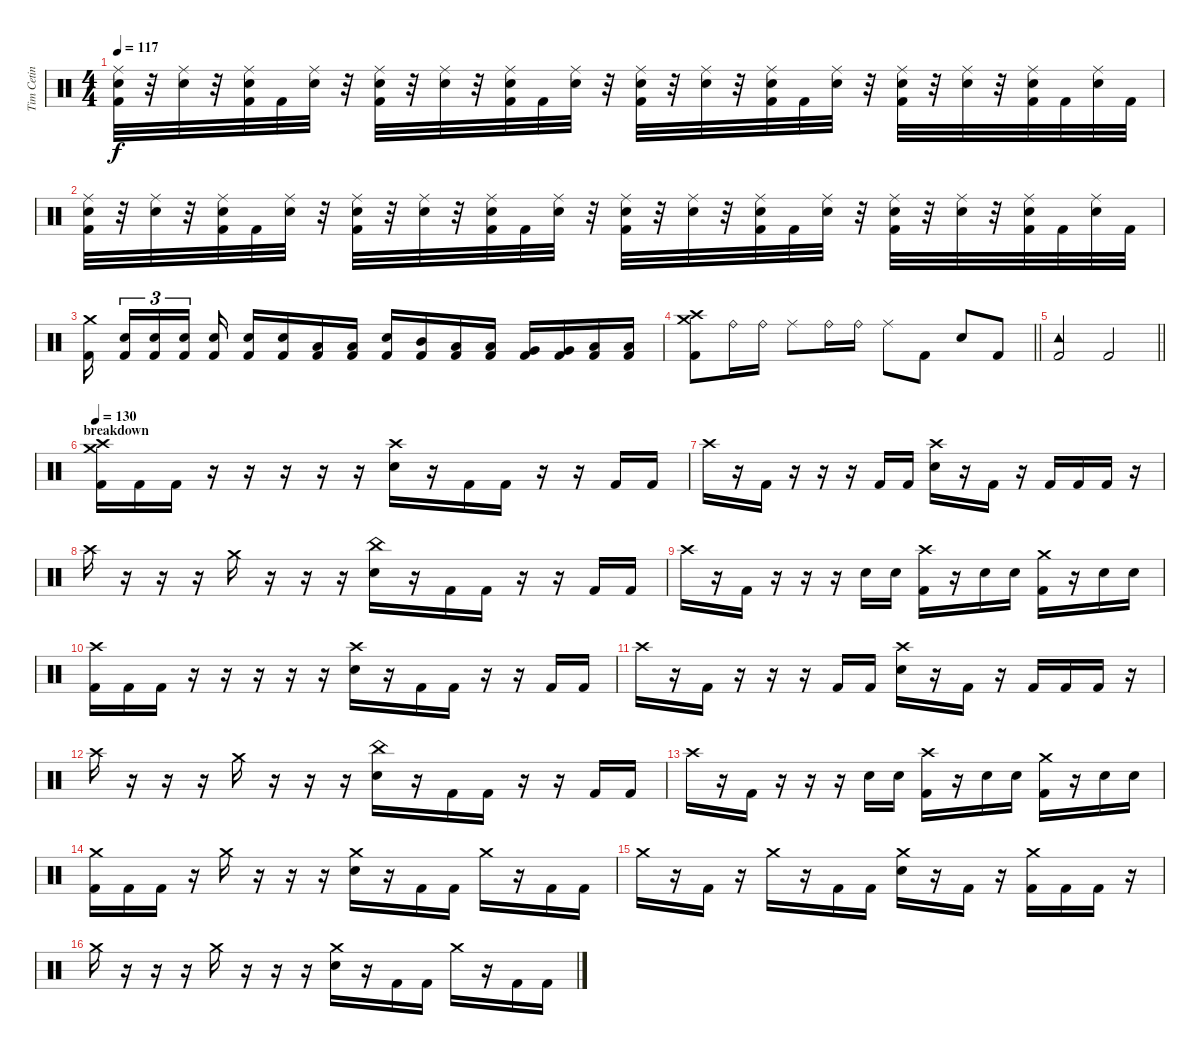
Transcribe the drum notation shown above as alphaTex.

\track ("Tim Cetin" "Tim Cetin") {instrument percussion}
\staff {score}
\articulation defaults
\ts (4 4)
\tempo 117
\clef neutral
\ks c
("Ride (middle)" "Snare (hit) 2" "Kick (hit) 2").32{dy f} r.32 ("Ride (middle)" "Snare (hit) 2").32 r.32 ("Ride (middle)" "Snare (hit) 2" "Kick (hit) 2").32 "Kick (hit) 2".32 ("Ride (middle)" "Snare (hit) 2").32 r.32 ("Ride (middle)" "Snare (hit) 2" "Kick (hit) 2").32 r.32 ("Ride (middle)" "Snare (hit) 2").32 r.32 ("Ride (middle)" "Snare (hit) 2" "Kick (hit) 2").32 "Kick (hit) 2".32 ("Ride (middle)" "Snare (hit) 2").32 r.32 ("Ride (middle)" "Snare (hit) 2" "Kick (hit) 2").32 r.32 ("Ride (middle)" "Snare (hit) 2").32 r.32 ("Ride (middle)" "Snare (hit) 2" "Kick (hit) 2").32 "Kick (hit) 2".32 ("Ride (middle)" "Snare (hit) 2").32 r.32 ("Ride (middle)" "Snare (hit) 2" "Kick (hit) 2").32 r.32 ("Ride (middle)" "Snare (hit) 2").32 r.32 ("Ride (middle)" "Snare (hit) 2" "Kick (hit) 2").32 "Kick (hit) 2".32 ("Ride (middle)" "Snare (hit) 2").32 "Kick (hit) 2".32 |
("Ride (middle)" "Snare (hit) 2" "Kick (hit) 2").32 r.32 ("Ride (middle)" "Snare (hit) 2").32 r.32 ("Ride (middle)" "Snare (hit) 2" "Kick (hit) 2").32 "Kick (hit) 2".32 ("Ride (middle)" "Snare (hit) 2").32 r.32 ("Ride (middle)" "Snare (hit) 2" "Kick (hit) 2").32 r.32 ("Ride (middle)" "Snare (hit) 2").32 r.32 ("Ride (middle)" "Snare (hit) 2" "Kick (hit) 2").32 "Kick (hit) 2".32 ("Ride (middle)" "Snare (hit) 2").32 r.32 ("Ride (middle)" "Snare (hit) 2" "Kick (hit) 2").32 r.32 ("Ride (middle)" "Snare (hit) 2").32 r.32 ("Ride (middle)" "Snare (hit) 2" "Kick (hit) 2").32 "Kick (hit) 2".32 ("Ride (middle)" "Snare (hit) 2").32 r.32 ("Ride (middle)" "Snare (hit) 2" "Kick (hit) 2").32 r.32 ("Ride (middle)" "Snare (hit) 2").32 r.32 ("Ride (middle)" "Snare (hit) 2" "Kick (hit) 2").32 "Kick (hit) 2".32 ("Ride (middle)" "Snare (hit) 2").32 "Kick (hit) 2".32 |
("Crash medium (hit)" "Kick (hit) 2").16{beam splitsecondary} ("Snare (hit) 2" "Kick (hit) 2").16{tu (3 2)} ("Snare (hit) 2" "Kick (hit) 2").16{tu (3 2)} ("Snare (hit) 2" "Kick (hit) 2").16{tu (3 2) beam splitsecondary} ("Snare (hit) 2" "Kick (hit) 2").16 ("Snare (hit) 2" "Kick (hit) 2").16 ("Snare (hit) 2" "Kick (hit) 2").16 ("Low Tom (hit)" "Kick (hit) 2").16 ("Low Tom (hit)" "Kick (hit) 2").16 ("Snare (hit) 2" "Kick (hit) 2").16 ("Mid Tom (hit)" "Kick (hit) 2").16 ("Low Tom (hit)" "Kick (hit) 2").16 ("Low Tom (hit)" "Kick (hit) 2").16 ("Very Low Tom (hit)" "Kick (hit) 2").16 ("Very Low Tom (hit)" "Kick (hit) 2").16 ("Low Floor Tom (hit)" "Kick (hit) 2").16 ("Low Floor Tom (hit)" "Kick (hit) 2").16 |
\barLineRight lightlight
("Crash medium (hit)" "Crash high (hit)" "Kick (hit) 2").8 "Ride (bell)".16 "Ride (bell)".16 "Ride (middle)".8 "Ride (bell)".16 "Ride (bell)".16 "Ride (middle)".8 "Kick (hit) 2".8 "Snare (hit) 2".8 "Kick (hit) 2".8 |
\barLineRight lightlight
("Tambourine (hit)" "Kick (hit) 2").2 "Kick (hit) 2".2 |
\section ("" "breakdown")
\tempo 130
("Crash medium (hit)" "Crash high (hit)" "Kick (hit) 2").16 "Kick (hit) 2".16 "Kick (hit) 2".16 r.16 r.16 r.16 r.16 r.16 ("Crash high (hit)" "Snare (hit) 2").16 r.16 "Kick (hit) 2".16 "Kick (hit) 2".16 r.16 r.16 "Kick (hit) 2".16 "Kick (hit) 2".16 |
"Crash high (hit)".16 r.16 "Kick (hit) 2".16 r.16 r.16 r.16 "Kick (hit) 2".16 "Kick (hit) 2".16 ("Crash high (hit)" "Snare (hit) 2").16 r.16 "Kick (hit) 2".16 r.16 "Kick (hit) 2".16 "Kick (hit) 2".16 "Kick (hit) 2".16 r.16 |
"Crash high (hit)".16 r.16 r.16 r.16 "Crash medium (hit)".16 r.16 r.16 r.16 ("China (hit)" "Snare (hit) 2").16 r.16 "Kick (hit) 2".16 "Kick (hit) 2".16 r.16 r.16 "Kick (hit) 2".16 "Kick (hit) 2".16 |
"Crash high (hit)".16 r.16 "Kick (hit) 2".16 r.16 r.16 r.16 "Snare (hit) 2".16 "Snare (hit) 2".16 ("Crash high (hit)" "Kick (hit) 2").16 r.16 "Snare (hit) 2".16 "Snare (hit) 2".16 ("Crash medium (hit)" "Kick (hit) 2").16 r.16 "Snare (hit) 2".16 "Snare (hit) 2".16 |
("Crash high (hit)" "Kick (hit) 2").16 "Kick (hit) 2".16 "Kick (hit) 2".16 r.16 r.16 r.16 r.16 r.16 ("Crash high (hit)" "Snare (hit) 2").16 r.16 "Kick (hit) 2".16 "Kick (hit) 2".16 r.16 r.16 "Kick (hit) 2".16 "Kick (hit) 2".16 |
"Crash high (hit)".16 r.16 "Kick (hit) 2".16 r.16 r.16 r.16 "Kick (hit) 2".16 "Kick (hit) 2".16 ("Crash high (hit)" "Snare (hit) 2").16 r.16 "Kick (hit) 2".16 r.16 "Kick (hit) 2".16 "Kick (hit) 2".16 "Kick (hit) 2".16 r.16 |
"Crash high (hit)".16 r.16 r.16 r.16 "Crash medium (hit)".16 r.16 r.16 r.16 ("China (hit)" "Snare (hit) 2").16 r.16 "Kick (hit) 2".16 "Kick (hit) 2".16 r.16 r.16 "Kick (hit) 2".16 "Kick (hit) 2".16 |
"Crash high (hit)".16 r.16 "Kick (hit) 2".16 r.16 r.16 r.16 "Snare (hit) 2".16 "Snare (hit) 2".16 ("Crash high (hit)" "Kick (hit) 2").16 r.16 "Snare (hit) 2".16 "Snare (hit) 2".16 ("Crash medium (hit)" "Kick (hit) 2").16 r.16 "Snare (hit) 2".16 "Snare (hit) 2".16 |
("Crash medium (hit)" "Kick (hit) 2").16 "Kick (hit) 2".16 "Kick (hit) 2".16 r.16 "Crash medium (hit)".16 r.16 r.16 r.16 ("Crash medium (hit)" "Snare (hit) 2").16 r.16 "Kick (hit) 2".16 "Kick (hit) 2".16 "Crash medium (hit)".16 r.16 "Kick (hit) 2".16 "Kick (hit) 2".16 |
"Crash medium (hit)".16 r.16 "Kick (hit) 2".16 r.16 "Crash medium (hit)".16 r.16 "Kick (hit) 2".16 "Kick (hit) 2".16 ("Crash medium (hit)" "Snare (hit) 2").16 r.16 "Kick (hit) 2".16 r.16 ("Crash medium (hit)" "Kick (hit) 2").16 "Kick (hit) 2".16 "Kick (hit) 2".16 r.16 |
"Crash medium (hit)".16 r.16 r.16 r.16 "Crash medium (hit)".16 r.16 r.16 r.16 ("Crash medium (hit)" "Snare (hit) 2").16 r.16 "Kick (hit) 2".16 "Kick (hit) 2".16 "Crash medium (hit)".16 r.16 "Kick (hit) 2".16 "Kick (hit) 2".16
